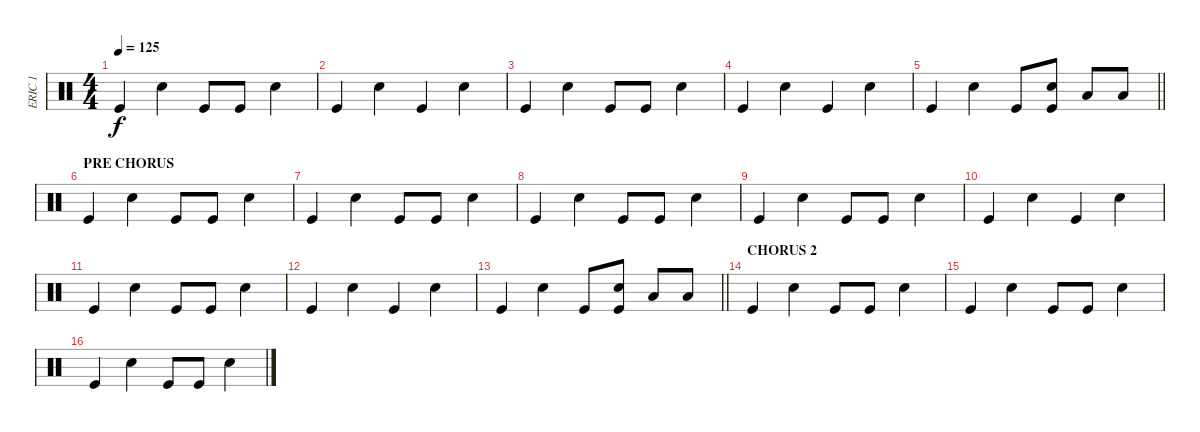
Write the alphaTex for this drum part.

\track ("ERIC 1" "ERIC 1") {instrument percussion}
\staff {score}
\articulation defaults
\ts (4 4)
\tempo 125
\clef neutral
\ks c "Kick (hit)".4{dy f} "Electric Snare (hit)".4 "Kick (hit)".8 "Kick (hit)".8 "Electric Snare (hit)".4
|
"Kick (hit)".4 "Electric Snare (hit)".4 "Kick (hit)".4 "Electric Snare (hit)".4 |
"Kick (hit)".4 "Electric Snare (hit)".4 "Kick (hit)".8 "Kick (hit)".8 "Electric Snare (hit)".4 |
"Kick (hit)".4 "Electric Snare (hit)".4 "Kick (hit)".4 "Electric Snare (hit)".4 |
\barLineRight lightlight "Kick (hit)".4 "Electric Snare (hit)".4 "Kick (hit)".8
("Electric Snare (hit)" "Kick (hit)").8 "Low Tom (hit)".8 "Low Floor Tom (hit)".8 |
\section ("" "PRE CHORUS")
"Kick (hit)".4 "Electric Snare (hit)".4 "Kick (hit)".8 "Kick (hit)".8 "Electric Snare (hit)".4 |
"Kick (hit)".4 "Electric Snare (hit)".4 "Kick (hit)".8 "Kick (hit)".8 "Electric Snare (hit)".4 |
"Kick (hit)".4 "Electric Snare (hit)".4 "Kick (hit)".8 "Kick (hit)".8 "Electric Snare (hit)".4 |
"Kick (hit)".4 "Electric Snare (hit)".4 "Kick (hit)".8 "Kick (hit)".8 "Electric Snare (hit)".4 |
"Kick (hit)".4 "Electric Snare (hit)".4 "Kick (hit)".4 "Electric Snare (hit)".4 |
"Kick (hit)".4 "Electric Snare (hit)".4 "Kick (hit)".8 "Kick (hit)".8 "Electric Snare (hit)".4 |
"Kick (hit)".4 "Electric Snare (hit)".4 "Kick (hit)".4 "Electric Snare (hit)".4 |
\barLineRight lightlight "Kick (hit)".4 "Electric Snare (hit)".4 "Kick (hit)".8
("Electric Snare (hit)" "Kick (hit)").8 "Low Tom (hit)".8 "Low Floor Tom (hit)".8 |
\section ("" "CHORUS 2")
"Kick (hit)".4 "Electric Snare (hit)".4 "Kick (hit)".8 "Kick (hit)".8 "Electric Snare (hit)".4 |
"Kick (hit)".4 "Electric Snare (hit)".4 "Kick (hit)".8 "Kick (hit)".8 "Electric Snare (hit)".4 |
"Kick (hit)".4 "Electric Snare (hit)".4 "Kick (hit)".8 "Kick (hit)".8 "Electric Snare (hit)".4
